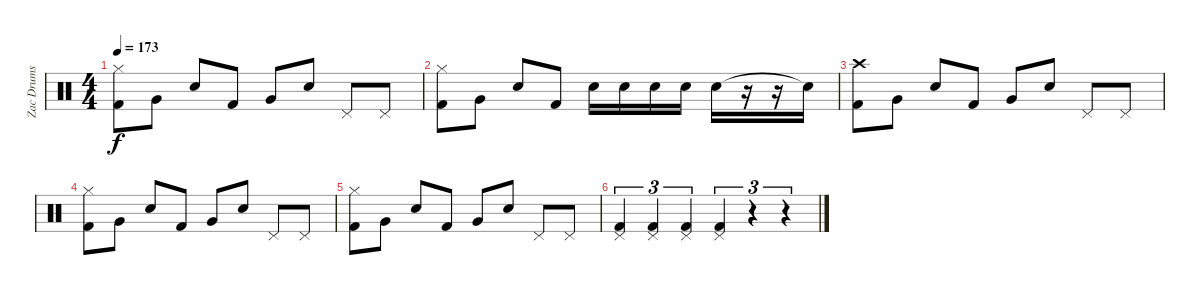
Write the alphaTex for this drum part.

\track ("Zac Drums" "Zac Drums") {instrument percussion}
\staff {score}
\articulation defaults
\ts (4 4)
\tempo 173
\clef neutral
\ks c
("Hi-Hat (closed)" "Kick (hit) 2").8{dy f} "Very Low Tom (hit)".8 "Electric Snare (hit)".8 "Kick (hit) 2".8 "Very Low Tom (hit)".8 "Electric Snare (hit)".8 "Pedal Hi-Hat (hit)".8 "Pedal Hi-Hat (hit)".8 |
("Hi-Hat (closed)" "Kick (hit) 2").8 "Very Low Tom (hit)".8 "Electric Snare (hit)".8 "Kick (hit) 2".8 "Electric Snare (hit)".16 "Electric Snare (hit)".16 "Electric Snare (hit)".16 "Electric Snare (hit)".16 "Electric Snare (hit)".16 r.16 r.16 "Snare (hit)"{t}.16 |
("Crash high (hit)" "Kick (hit) 2").8 "Very Low Tom (hit)".8 "Electric Snare (hit)".8 "Kick (hit) 2".8 "Very Low Tom (hit)".8 "Electric Snare (hit)".8 "Pedal Hi-Hat (hit)".8 "Pedal Hi-Hat (hit)".8 |
("Hi-Hat (closed)" "Kick (hit) 2").8 "Very Low Tom (hit)".8 "Electric Snare (hit)".8 "Kick (hit) 2".8 "Very Low Tom (hit)".8 "Electric Snare (hit)".8 "Pedal Hi-Hat (hit)".8 "Pedal Hi-Hat (hit)".8 |
("Hi-Hat (closed)" "Kick (hit) 2").8 "Very Low Tom (hit)".8 "Electric Snare (hit)".8 "Kick (hit) 2".8 "Very Low Tom (hit)".8 "Electric Snare (hit)".8 "Pedal Hi-Hat (hit)".8 "Pedal Hi-Hat (hit)".8 |
("Pedal Hi-Hat (hit)" "Kick (hit) 2").4{tu (3 2)} ("Pedal Hi-Hat (hit)" "Kick (hit) 2").4{tu (3 2)} ("Pedal Hi-Hat (hit)" "Kick (hit) 2").4{tu (3 2)} ("Pedal Hi-Hat (hit)" "Kick (hit) 2").4{tu (3 2)} r.4{tu (3 2)} r.4{tu (3 2)}
